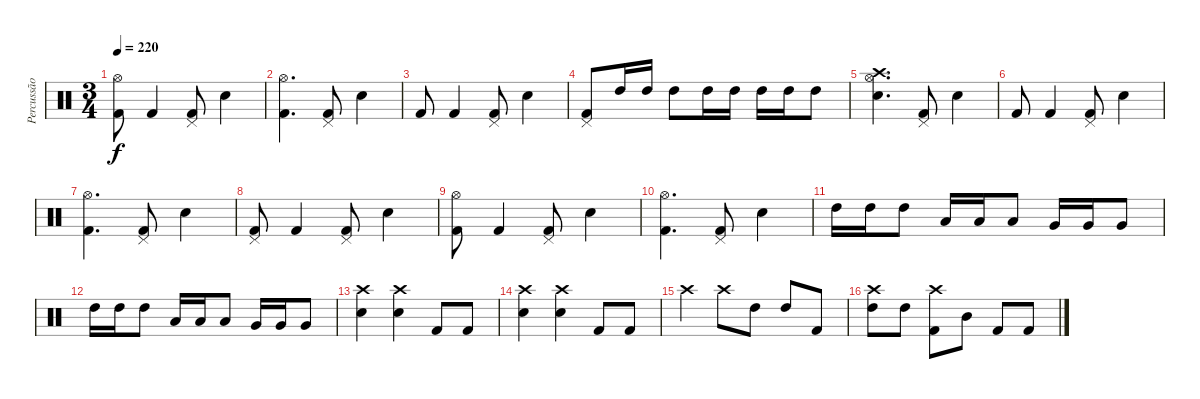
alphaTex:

\track ("Percussão" "Percussão") {instrument percussion}
\staff {score}
\articulation defaults
\ts (3 4)
\tempo 220
\clef neutral
\ks c
("Hi-Hat (open)" "Kick (hit) 2").8{dy f} "Kick (hit) 2".4 ("Pedal Hi-Hat (hit)" "Kick (hit) 2").8 "Snare (hit) 2".4 |
("Hi-Hat (open)" "Kick (hit) 2").4{d} ("Pedal Hi-Hat (hit)" "Kick (hit) 2").8 "Snare (hit) 2".4 |
"Kick (hit) 2".8 "Kick (hit) 2".4 ("Pedal Hi-Hat (hit)" "Kick (hit) 2").8 "Snare (hit) 2".4 |
("Pedal Hi-Hat (hit)" "Kick (hit) 2").8 "High Tom (hit)".16 "High Tom (hit)".16 "High Tom (hit)".8 "High Tom (hit)".16 "High Tom (hit)".16 "High Tom (hit)".16 "High Tom (hit)".16 "High Tom (hit)".8 |
("Hi-Hat (open)" "Snare (hit) 2" "Crash high (hit)").4{d} ("Pedal Hi-Hat (hit)" "Kick (hit) 2").8 "Snare (hit) 2".4 |
"Kick (hit) 2".8 "Kick (hit) 2".4 ("Pedal Hi-Hat (hit)" "Kick (hit) 2").8 "Snare (hit) 2".4 |
("Hi-Hat (open)" "Kick (hit) 2").4{d} ("Pedal Hi-Hat (hit)" "Kick (hit) 2").8 "Snare (hit) 2".4 |
("Pedal Hi-Hat (hit)" "Kick (hit) 2").8 "Kick (hit) 2".4 ("Pedal Hi-Hat (hit)" "Kick (hit) 2").8 "Snare (hit) 2".4 |
("Hi-Hat (open)" "Kick (hit) 2").8 "Kick (hit) 2".4 ("Pedal Hi-Hat (hit)" "Kick (hit) 2").8 "Snare (hit) 2".4 |
("Hi-Hat (open)" "Kick (hit) 2").4{d} ("Pedal Hi-Hat (hit)" "Kick (hit) 2").8 "Snare (hit) 2".4 |
"High Tom (hit)".16 "High Tom (hit)".16 "High Tom (hit)".8 "Low Tom (hit)".16 "Low Tom (hit)".16 "Low Tom (hit)".8 "Very Low Tom (hit)".16 "Very Low Tom (hit)".16 "Very Low Tom (hit)".8 |
"High Tom (hit)".16 "High Tom (hit)".16 "High Tom (hit)".8 "Low Tom (hit)".16 "Low Tom (hit)".16 "Low Tom (hit)".8 "Very Low Tom (hit)".16 "Very Low Tom (hit)".16 "Very Low Tom (hit)".8 |
("Crash high (hit)" "Snare (hit) 2").4 ("Crash high (hit)" "Snare (hit) 2").4 "Kick (hit) 2".8 "Kick (hit) 2".8 |
("Crash high (hit)" "Snare (hit) 2").4 ("Crash high (hit)" "Snare (hit) 2").4 "Kick (hit) 2".8 "Kick (hit) 2".8 |
"Crash high (hit)".4 "Crash high (hit)".8 "High Tom (hit)".8 "High Tom (hit)".8 "Kick (hit) 2".8 |
("Crash high (hit)" "High Tom (hit)").8 "High Tom (hit)".8 ("Crash high (hit)" "Kick (hit) 2").8 "Mid Tom (hit)".8 "Kick (hit) 2".8 "Kick (hit) 2".8
